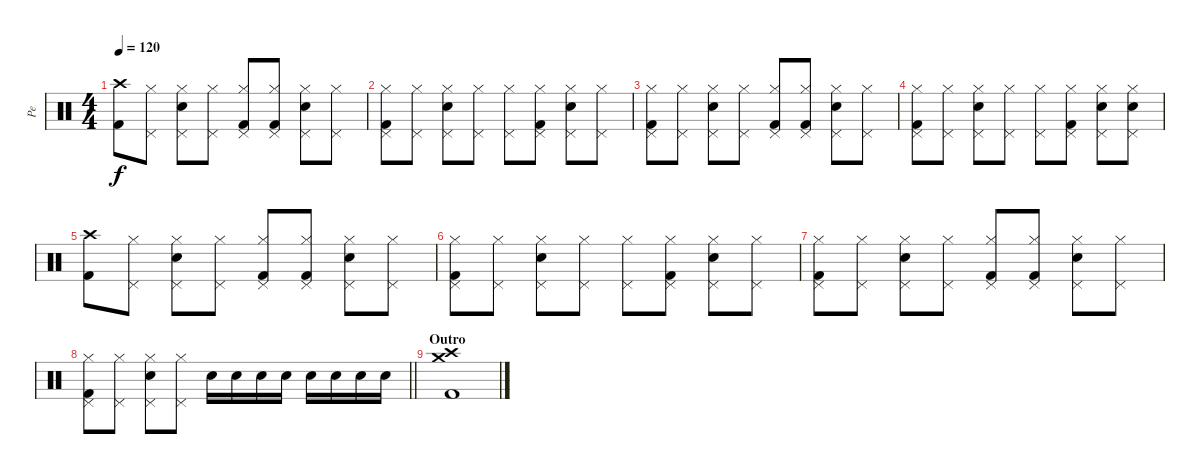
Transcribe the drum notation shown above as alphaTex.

\track ("Pe" "Pe") {instrument percussion}
\staff {score}
\articulation defaults
\ts (4 4)
\tempo 120
\clef neutral
\ks c
("Kick (hit) 2" "Crash high (hit)").8{dy f} ("Hi-Hat (closed)" "Pedal Hi-Hat (hit)").8 ("Snare (hit) 2" "Hi-Hat (closed)" "Pedal Hi-Hat (hit)").8 ("Hi-Hat (closed)" "Pedal Hi-Hat (hit)").8 ("Kick (hit) 2" "Hi-Hat (closed)" "Pedal Hi-Hat (hit)").8 ("Kick (hit) 2" "Hi-Hat (closed)" "Pedal Hi-Hat (hit)").8 ("Snare (hit) 2" "Hi-Hat (closed)" "Pedal Hi-Hat (hit)").8 ("Hi-Hat (closed)" "Pedal Hi-Hat (hit)").8 |
("Kick (hit) 2" "Hi-Hat (closed)" "Pedal Hi-Hat (hit)").8 ("Hi-Hat (closed)" "Pedal Hi-Hat (hit)").8 ("Snare (hit) 2" "Hi-Hat (closed)" "Pedal Hi-Hat (hit)").8 ("Hi-Hat (closed)" "Pedal Hi-Hat (hit)").8 ("Hi-Hat (closed)" "Pedal Hi-Hat (hit)").8 ("Kick (hit) 2" "Hi-Hat (closed)" "Pedal Hi-Hat (hit)").8 ("Snare (hit) 2" "Hi-Hat (closed)" "Pedal Hi-Hat (hit)").8 ("Hi-Hat (closed)" "Pedal Hi-Hat (hit)").8 |
("Kick (hit) 2" "Hi-Hat (closed)" "Pedal Hi-Hat (hit)").8 ("Hi-Hat (closed)" "Pedal Hi-Hat (hit)").8 ("Snare (hit) 2" "Hi-Hat (closed)" "Pedal Hi-Hat (hit)").8 ("Hi-Hat (closed)" "Pedal Hi-Hat (hit)").8 ("Kick (hit) 2" "Hi-Hat (closed)" "Pedal Hi-Hat (hit)").8 ("Kick (hit) 2" "Hi-Hat (closed)" "Pedal Hi-Hat (hit)").8 ("Snare (hit) 2" "Hi-Hat (closed)" "Pedal Hi-Hat (hit)").8 ("Hi-Hat (closed)" "Pedal Hi-Hat (hit)").8 |
("Kick (hit) 2" "Hi-Hat (closed)" "Pedal Hi-Hat (hit)").8 ("Hi-Hat (closed)" "Pedal Hi-Hat (hit)").8 ("Snare (hit) 2" "Hi-Hat (closed)" "Pedal Hi-Hat (hit)").8 ("Hi-Hat (closed)" "Pedal Hi-Hat (hit)").8 ("Hi-Hat (closed)" "Pedal Hi-Hat (hit)").8 ("Kick (hit) 2" "Hi-Hat (closed)" "Pedal Hi-Hat (hit)").8 ("Snare (hit) 2" "Hi-Hat (closed)" "Pedal Hi-Hat (hit)").8 ("Snare (hit) 2" "Hi-Hat (closed)" "Pedal Hi-Hat (hit)").8 |
("Kick (hit) 2" "Crash high (hit)").8 ("Hi-Hat (closed)" "Pedal Hi-Hat (hit)").8 ("Snare (hit) 2" "Hi-Hat (closed)" "Pedal Hi-Hat (hit)").8 ("Hi-Hat (closed)" "Pedal Hi-Hat (hit)").8 ("Kick (hit) 2" "Hi-Hat (closed)" "Pedal Hi-Hat (hit)").8 ("Kick (hit) 2" "Hi-Hat (closed)" "Pedal Hi-Hat (hit)").8 ("Snare (hit) 2" "Hi-Hat (closed)" "Pedal Hi-Hat (hit)").8 ("Hi-Hat (closed)" "Pedal Hi-Hat (hit)").8 |
("Kick (hit) 2" "Hi-Hat (closed)" "Pedal Hi-Hat (hit)").8 ("Hi-Hat (closed)" "Pedal Hi-Hat (hit)").8 ("Snare (hit) 2" "Hi-Hat (closed)" "Pedal Hi-Hat (hit)").8 ("Hi-Hat (closed)" "Pedal Hi-Hat (hit)").8 ("Hi-Hat (closed)" "Pedal Hi-Hat (hit)").8 ("Kick (hit) 2" "Hi-Hat (closed)" "Pedal Hi-Hat (hit)").8 ("Snare (hit) 2" "Hi-Hat (closed)" "Pedal Hi-Hat (hit)").8 ("Hi-Hat (closed)" "Pedal Hi-Hat (hit)").8 |
("Kick (hit) 2" "Hi-Hat (closed)" "Pedal Hi-Hat (hit)").8 ("Hi-Hat (closed)" "Pedal Hi-Hat (hit)").8 ("Snare (hit) 2" "Hi-Hat (closed)" "Pedal Hi-Hat (hit)").8 ("Hi-Hat (closed)" "Pedal Hi-Hat (hit)").8 ("Kick (hit) 2" "Hi-Hat (closed)" "Pedal Hi-Hat (hit)").8 ("Kick (hit) 2" "Hi-Hat (closed)" "Pedal Hi-Hat (hit)").8 ("Snare (hit) 2" "Hi-Hat (closed)" "Pedal Hi-Hat (hit)").8 ("Hi-Hat (closed)" "Pedal Hi-Hat (hit)").8 |
\barLineRight lightlight
("Kick (hit) 2" "Hi-Hat (closed)" "Pedal Hi-Hat (hit)").8 ("Hi-Hat (closed)" "Pedal Hi-Hat (hit)").8 ("Snare (hit) 2" "Hi-Hat (closed)" "Pedal Hi-Hat (hit)").8 ("Hi-Hat (closed)" "Pedal Hi-Hat (hit)").8 "Snare (hit) 2".16 "Snare (hit) 2".16 "Snare (hit) 2".16 "Snare (hit) 2".16 "Snare (hit) 2".16 "Snare (hit) 2".16 "Snare (hit) 2".16 "Snare (hit) 2".16 |
\section ("" "Outro")
("Kick (hit) 2" "Crash high (hit)" "Crash medium (hit)").1
